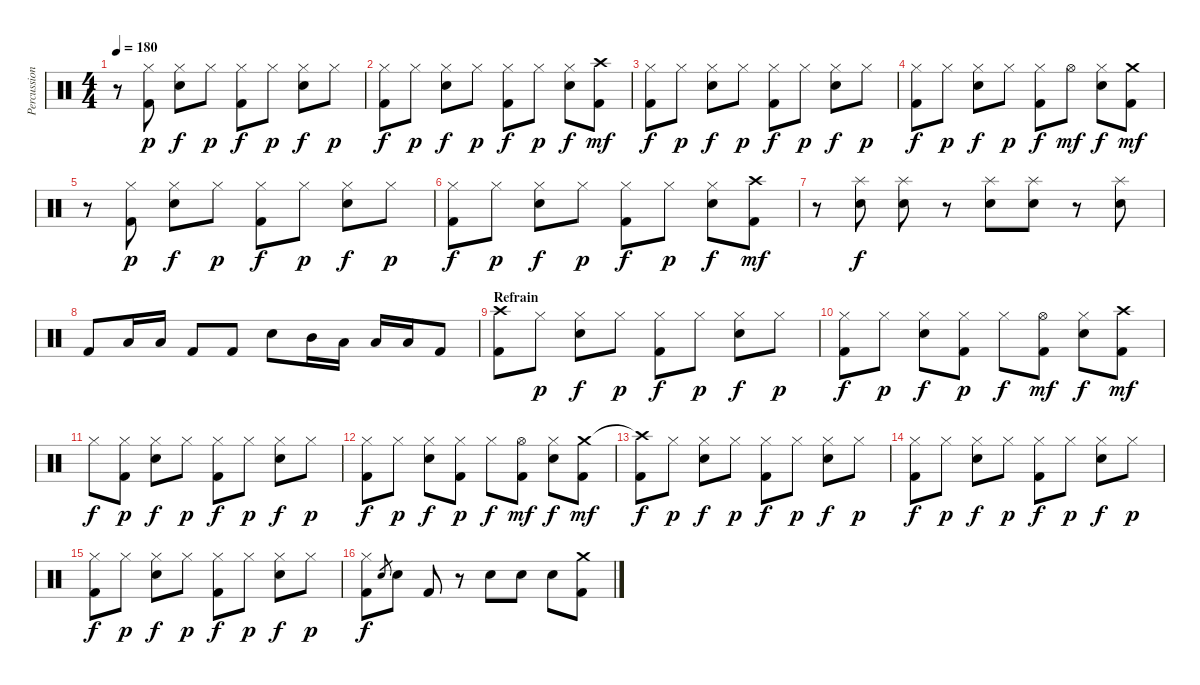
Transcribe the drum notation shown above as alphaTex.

\track ("Percussions" "Percussion") {instrument percussion}
\staff {score}
\articulation defaults
\ts (4 4)
\tempo 180
\clef neutral
\ks c
r.8{dy f} ("Hi-Hat (closed)" "Kick (hit) 2").8{dy p} ("Hi-Hat (closed)" "Electric Snare (hit)").8{dy f} "Hi-Hat (closed)".8{dy p} ("Hi-Hat (closed)" "Kick (hit) 2").8{dy f} "Hi-Hat (closed)".8{dy p} ("Hi-Hat (closed)" "Electric Snare (hit)").8{dy f} "Hi-Hat (closed)".8{dy p} |
("Hi-Hat (closed)" "Kick (hit) 2").8{dy f} "Hi-Hat (closed)".8{dy p} ("Hi-Hat (closed)" "Electric Snare (hit)").8{dy f} "Hi-Hat (closed)".8{dy p} ("Hi-Hat (closed)" "Kick (hit) 2").8{dy f} "Hi-Hat (closed)".8{dy p} ("Hi-Hat (closed)" "Electric Snare (hit)").8{dy f} ("Crash high (hit)" "Kick (hit) 2").8{dy mf} |
("Hi-Hat (closed)" "Kick (hit) 2").8{dy f} "Hi-Hat (closed)".8{dy p} ("Hi-Hat (closed)" "Electric Snare (hit)").8{dy f} "Hi-Hat (closed)".8{dy p} ("Hi-Hat (closed)" "Kick (hit) 2").8{dy f} "Hi-Hat (closed)".8{dy p} ("Hi-Hat (closed)" "Electric Snare (hit)").8{dy f} "Hi-Hat (closed)".8{dy p} |
("Hi-Hat (closed)" "Kick (hit) 2").8{dy f} "Hi-Hat (closed)".8{dy p} ("Hi-Hat (closed)" "Electric Snare (hit)").8{dy f} "Hi-Hat (closed)".8{dy p} ("Hi-Hat (closed)" "Kick (hit) 2").8{dy f} "Hi-Hat (open)".8{dy mf} ("Hi-Hat (closed)" "Electric Snare (hit)").8{dy f} ("Crash medium (hit)" "Kick (hit) 2").8{dy mf} |
r.8 ("Hi-Hat (closed)" "Kick (hit) 2").8{dy p} ("Hi-Hat (closed)" "Electric Snare (hit)").8{dy f} "Hi-Hat (closed)".8{dy p} ("Hi-Hat (closed)" "Kick (hit) 2").8{dy f} "Hi-Hat (closed)".8{dy p} ("Hi-Hat (closed)" "Electric Snare (hit)").8{dy f} "Hi-Hat (closed)".8{dy p} |
("Hi-Hat (closed)" "Kick (hit) 2").8{dy f} "Hi-Hat (closed)".8{dy p} ("Hi-Hat (closed)" "Electric Snare (hit)").8{dy f} "Hi-Hat (closed)".8{dy p} ("Hi-Hat (closed)" "Kick (hit) 2").8{dy f} "Hi-Hat (closed)".8{dy p} ("Hi-Hat (closed)" "Electric Snare (hit)").8{dy f} ("Crash high (hit)" "Kick (hit) 2").8{dy mf} |
r.8 ("Splash (hit)" "Electric Snare (hit)").8{dy f} ("Splash (hit)" "Electric Snare (hit)").8 r.8 ("Splash (hit)" "Electric Snare (hit)").8 ("Splash (hit)" "Electric Snare (hit)").8 r.8 ("Splash (hit)" "Electric Snare (hit)").8 |
"Kick (hit) 2".8 "Low Tom (hit)".16 "Low Tom (hit)".16 "Kick (hit) 2".8 "Kick (hit) 2".8 "Electric Snare (hit)".8 "Mid Tom (hit)".16 "Low Tom (hit)".16 "Low Tom (hit)".16 "Low Tom (hit)".16 "Kick (hit) 2".8 |
\section ("" "Refrain")
("Crash high (hit)" "Kick (hit) 2").8 "Hi-Hat (closed)".8{dy p} ("Hi-Hat (closed)" "Electric Snare (hit)").8{dy f} "Hi-Hat (closed)".8{dy p} ("Hi-Hat (closed)" "Kick (hit) 2").8{dy f} "Hi-Hat (closed)".8{dy p} ("Hi-Hat (closed)" "Electric Snare (hit)").8{dy f} "Hi-Hat (closed)".8{dy p} |
("Hi-Hat (closed)" "Kick (hit) 2").8{dy f} "Hi-Hat (closed)".8{dy p} ("Hi-Hat (closed)" "Electric Snare (hit)").8{dy f} ("Hi-Hat (closed)" "Kick (hit) 2").8{dy p} "Hi-Hat (closed)".8{dy f} ("Hi-Hat (open)" "Kick (hit) 2").8{dy mf} ("Hi-Hat (closed)" "Electric Snare (hit)").8{dy f} ("Crash high (hit)" "Kick (hit) 2").8{dy mf} |
"Hi-Hat (closed)".8{dy f} ("Hi-Hat (closed)" "Kick (hit) 2").8{dy p} ("Hi-Hat (closed)" "Electric Snare (hit)").8{dy f} "Hi-Hat (closed)".8{dy p} ("Hi-Hat (closed)" "Kick (hit) 2").8{dy f} "Hi-Hat (closed)".8{dy p} ("Hi-Hat (closed)" "Electric Snare (hit)").8{dy f} "Hi-Hat (closed)".8{dy p} |
("Hi-Hat (closed)" "Kick (hit) 2").8{dy f} "Hi-Hat (closed)".8{dy p} ("Hi-Hat (closed)" "Electric Snare (hit)").8{dy f} ("Hi-Hat (closed)" "Kick (hit) 2").8{dy p} "Hi-Hat (closed)".8{dy f} ("Hi-Hat (open)" "Kick (hit) 2").8{dy mf} ("Hi-Hat (closed)" "Electric Snare (hit)").8{dy f} ("Crash medium (hit)" "Kick (hit) 2").8{dy mf} |
("Crash high (hit)"{t} "Kick (hit) 2").8{dy f} "Hi-Hat (closed)".8{dy p} ("Hi-Hat (closed)" "Electric Snare (hit)").8{dy f} "Hi-Hat (closed)".8{dy p} ("Hi-Hat (closed)" "Kick (hit) 2").8{dy f} "Hi-Hat (closed)".8{dy p} ("Hi-Hat (closed)" "Electric Snare (hit)").8{dy f} "Hi-Hat (closed)".8{dy p} |
("Hi-Hat (closed)" "Kick (hit) 2").8{dy f} "Hi-Hat (closed)".8{dy p} ("Hi-Hat (closed)" "Electric Snare (hit)").8{dy f} "Hi-Hat (closed)".8{dy p} ("Hi-Hat (closed)" "Kick (hit) 2").8{dy f} "Hi-Hat (closed)".8{dy p} ("Hi-Hat (closed)" "Electric Snare (hit)").8{dy f} "Hi-Hat (closed)".8{dy p} |
("Hi-Hat (closed)" "Kick (hit) 2").8{dy f} "Hi-Hat (closed)".8{dy p} ("Hi-Hat (closed)" "Electric Snare (hit)").8{dy f} "Hi-Hat (closed)".8{dy p} ("Hi-Hat (closed)" "Kick (hit) 2").8{dy f} "Hi-Hat (closed)".8{dy p} ("Hi-Hat (closed)" "Electric Snare (hit)").8{dy f} "Hi-Hat (closed)".8{dy p} |
("Hi-Hat (closed)" "Kick (hit) 2").8{dy f} "Electric Snare (hit)".8{gr} "Electric Snare (hit)".8 "Kick (hit) 2".8 r.8 "Electric Snare (hit)".8 "Electric Snare (hit)".8 "Electric Snare (hit)".8 ("Crash medium (hit)" "Kick (hit) 2").8
